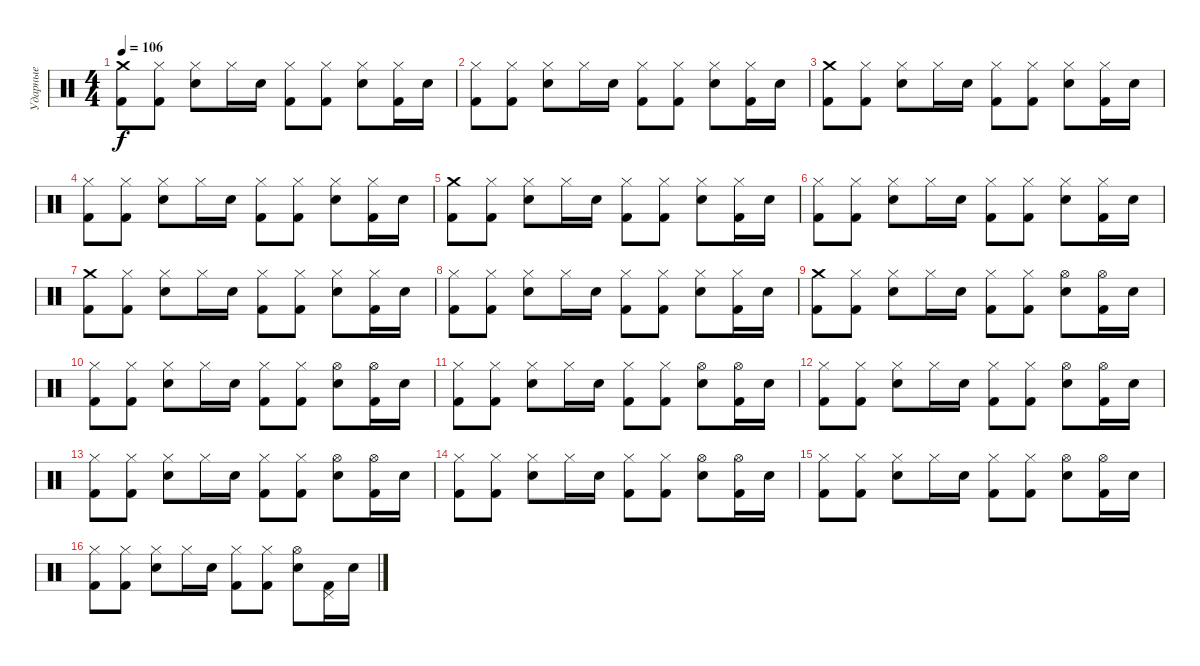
\track ("Ударные" "Ударные") {instrument percussion}
\staff {score}
\articulation defaults
\ts (4 4)
\tempo 106
\clef neutral
\ks c
("Crash medium (hit)" "Kick (hit) 2").8{dy f} ("Hi-Hat (closed)" "Kick (hit) 2").8 ("Hi-Hat (closed)" "Electric Snare (hit)").8 "Hi-Hat (closed)".16 "Electric Snare (hit)".16 ("Hi-Hat (closed)" "Kick (hit) 2").8 ("Hi-Hat (closed)" "Kick (hit) 2").8 ("Hi-Hat (closed)" "Electric Snare (hit)").8 ("Hi-Hat (closed)" "Kick (hit) 2").16 "Electric Snare (hit)".16 |
("Hi-Hat (closed)" "Kick (hit) 2").8 ("Hi-Hat (closed)" "Kick (hit) 2").8 ("Hi-Hat (closed)" "Electric Snare (hit)").8 "Hi-Hat (closed)".16 "Electric Snare (hit)".16 ("Hi-Hat (closed)" "Kick (hit) 2").8 ("Hi-Hat (closed)" "Kick (hit) 2").8 ("Hi-Hat (closed)" "Electric Snare (hit)").8 ("Hi-Hat (closed)" "Kick (hit) 2").16 "Electric Snare (hit)".16 |
("Crash medium (hit)" "Kick (hit) 2").8 ("Hi-Hat (closed)" "Kick (hit) 2").8 ("Hi-Hat (closed)" "Electric Snare (hit)").8 "Hi-Hat (closed)".16 "Electric Snare (hit)".16 ("Hi-Hat (closed)" "Kick (hit) 2").8 ("Hi-Hat (closed)" "Kick (hit) 2").8 ("Hi-Hat (closed)" "Electric Snare (hit)").8 ("Hi-Hat (closed)" "Kick (hit) 2").16 "Electric Snare (hit)".16 |
("Hi-Hat (closed)" "Kick (hit) 2").8 ("Hi-Hat (closed)" "Kick (hit) 2").8 ("Hi-Hat (closed)" "Electric Snare (hit)").8 "Hi-Hat (closed)".16 "Electric Snare (hit)".16 ("Hi-Hat (closed)" "Kick (hit) 2").8 ("Hi-Hat (closed)" "Kick (hit) 2").8 ("Hi-Hat (closed)" "Electric Snare (hit)").8 ("Hi-Hat (closed)" "Kick (hit) 2").16 "Electric Snare (hit)".16 |
("Crash medium (hit)" "Kick (hit) 2").8 ("Hi-Hat (closed)" "Kick (hit) 2").8 ("Hi-Hat (closed)" "Electric Snare (hit)").8 "Hi-Hat (closed)".16 "Electric Snare (hit)".16 ("Hi-Hat (closed)" "Kick (hit) 2").8 ("Hi-Hat (closed)" "Kick (hit) 2").8 ("Hi-Hat (closed)" "Electric Snare (hit)").8 ("Hi-Hat (closed)" "Kick (hit) 2").16 "Electric Snare (hit)".16 |
("Hi-Hat (closed)" "Kick (hit) 2").8 ("Hi-Hat (closed)" "Kick (hit) 2").8 ("Hi-Hat (closed)" "Electric Snare (hit)").8 "Hi-Hat (closed)".16 "Electric Snare (hit)".16 ("Hi-Hat (closed)" "Kick (hit) 2").8 ("Hi-Hat (closed)" "Kick (hit) 2").8 ("Hi-Hat (closed)" "Electric Snare (hit)").8 ("Hi-Hat (closed)" "Kick (hit) 2").16 "Electric Snare (hit)".16 |
("Crash medium (hit)" "Kick (hit) 2").8 ("Hi-Hat (closed)" "Kick (hit) 2").8 ("Hi-Hat (closed)" "Electric Snare (hit)").8 "Hi-Hat (closed)".16 "Electric Snare (hit)".16 ("Hi-Hat (closed)" "Kick (hit) 2").8 ("Hi-Hat (closed)" "Kick (hit) 2").8 ("Hi-Hat (closed)" "Electric Snare (hit)").8 ("Hi-Hat (closed)" "Kick (hit) 2").16 "Electric Snare (hit)".16 |
("Hi-Hat (closed)" "Kick (hit) 2").8 ("Hi-Hat (closed)" "Kick (hit) 2").8 ("Hi-Hat (closed)" "Electric Snare (hit)").8 "Hi-Hat (closed)".16 "Electric Snare (hit)".16 ("Hi-Hat (closed)" "Kick (hit) 2").8 ("Hi-Hat (closed)" "Kick (hit) 2").8 ("Hi-Hat (closed)" "Electric Snare (hit)").8 ("Hi-Hat (closed)" "Kick (hit) 2").16 "Electric Snare (hit)".16 |
("Crash medium (hit)" "Kick (hit) 2").8 ("Hi-Hat (closed)" "Kick (hit) 2").8 ("Hi-Hat (closed)" "Electric Snare (hit)").8 "Hi-Hat (closed)".16 "Electric Snare (hit)".16 ("Hi-Hat (closed)" "Kick (hit) 2").8 ("Hi-Hat (closed)" "Kick (hit) 2").8 ("Hi-Hat (open)" "Electric Snare (hit)").8 ("Hi-Hat (open)" "Kick (hit) 2").16 "Electric Snare (hit)".16 |
("Hi-Hat (closed)" "Kick (hit) 2").8 ("Hi-Hat (closed)" "Kick (hit) 2").8 ("Hi-Hat (closed)" "Electric Snare (hit)").8 "Hi-Hat (closed)".16 "Electric Snare (hit)".16 ("Hi-Hat (closed)" "Kick (hit) 2").8 ("Hi-Hat (closed)" "Kick (hit) 2").8 ("Hi-Hat (open)" "Electric Snare (hit)").8 ("Hi-Hat (open)" "Kick (hit) 2").16 "Electric Snare (hit)".16 |
("Hi-Hat (closed)" "Kick (hit) 2").8 ("Hi-Hat (closed)" "Kick (hit) 2").8 ("Hi-Hat (closed)" "Electric Snare (hit)").8 "Hi-Hat (closed)".16 "Electric Snare (hit)".16 ("Hi-Hat (closed)" "Kick (hit) 2").8 ("Hi-Hat (closed)" "Kick (hit) 2").8 ("Hi-Hat (open)" "Electric Snare (hit)").8 ("Hi-Hat (open)" "Kick (hit) 2").16 "Electric Snare (hit)".16 |
("Hi-Hat (closed)" "Kick (hit) 2").8 ("Hi-Hat (closed)" "Kick (hit) 2").8 ("Hi-Hat (closed)" "Electric Snare (hit)").8 "Hi-Hat (closed)".16 "Electric Snare (hit)".16 ("Hi-Hat (closed)" "Kick (hit) 2").8 ("Hi-Hat (closed)" "Kick (hit) 2").8 ("Hi-Hat (open)" "Electric Snare (hit)").8 ("Hi-Hat (open)" "Kick (hit) 2").16 "Electric Snare (hit)".16 |
("Hi-Hat (closed)" "Kick (hit) 2").8 ("Hi-Hat (closed)" "Kick (hit) 2").8 ("Hi-Hat (closed)" "Electric Snare (hit)").8 "Hi-Hat (closed)".16 "Electric Snare (hit)".16 ("Hi-Hat (closed)" "Kick (hit) 2").8 ("Hi-Hat (closed)" "Kick (hit) 2").8 ("Hi-Hat (open)" "Electric Snare (hit)").8 ("Hi-Hat (open)" "Kick (hit) 2").16 "Electric Snare (hit)".16 |
("Hi-Hat (closed)" "Kick (hit) 2").8 ("Hi-Hat (closed)" "Kick (hit) 2").8 ("Hi-Hat (closed)" "Electric Snare (hit)").8 "Hi-Hat (closed)".16 "Electric Snare (hit)".16 ("Hi-Hat (closed)" "Kick (hit) 2").8 ("Hi-Hat (closed)" "Kick (hit) 2").8 ("Hi-Hat (open)" "Electric Snare (hit)").8 ("Hi-Hat (open)" "Kick (hit) 2").16 "Electric Snare (hit)".16 |
("Hi-Hat (closed)" "Kick (hit) 2").8 ("Hi-Hat (closed)" "Kick (hit) 2").8 ("Hi-Hat (closed)" "Electric Snare (hit)").8 "Hi-Hat (closed)".16 "Electric Snare (hit)".16 ("Hi-Hat (closed)" "Kick (hit) 2").8 ("Hi-Hat (closed)" "Kick (hit) 2").8 ("Hi-Hat (open)" "Electric Snare (hit)").8 ("Hi-Hat (open)" "Kick (hit) 2").16 "Electric Snare (hit)".16 |
("Hi-Hat (closed)" "Kick (hit) 2").8 ("Hi-Hat (closed)" "Kick (hit) 2").8 ("Hi-Hat (closed)" "Electric Snare (hit)").8 "Hi-Hat (closed)".16 "Electric Snare (hit)".16 ("Hi-Hat (closed)" "Kick (hit) 2").8 ("Hi-Hat (closed)" "Kick (hit) 2").8 ("Hi-Hat (open)" "Electric Snare (hit)").8 ("Pedal Hi-Hat (hit)" "Kick (hit) 2").16 "Electric Snare (hit)".16
